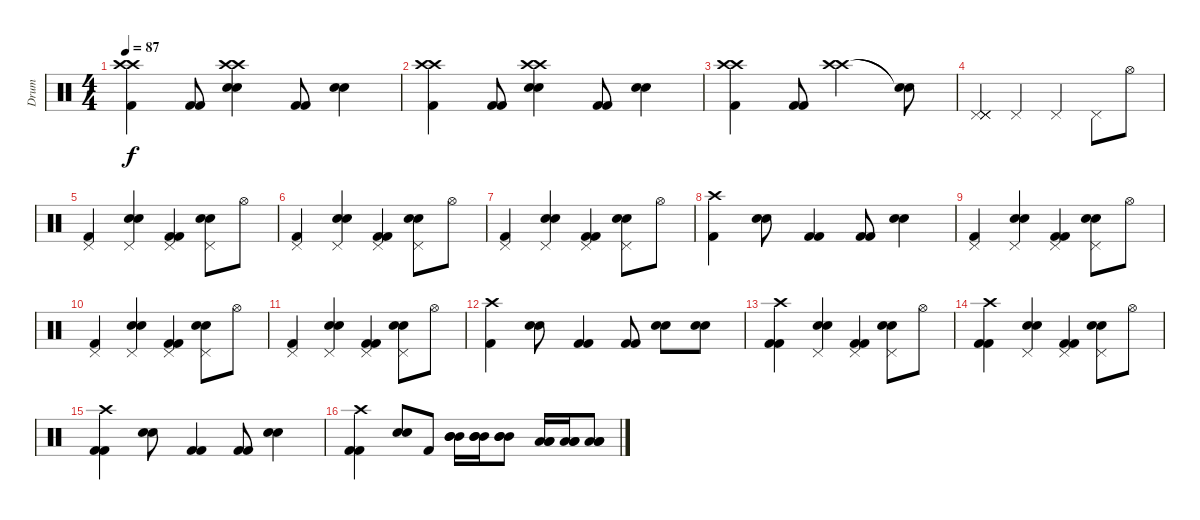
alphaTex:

\track ("Drum" "Drum") {instrument percussion}
\staff {score}
\articulation defaults
\ts (4 4)
\tempo 87
\clef neutral
\ks c
("Crash high (hit)" "Crash high (hit)" "Kick (hit) 2").4{dy f} ("Kick (hit) 2" "Kick (hit) 2").8 ("Crash high (hit)" "Crash high (hit)" "Electric Snare (hit)" "Electric Snare (hit)").4 ("Kick (hit) 2" "Kick (hit) 2").8 ("Electric Snare (hit)" "Electric Snare (hit)").4 |
("Crash high (hit)" "Crash high (hit)" "Kick (hit) 2").4 ("Kick (hit) 2" "Kick (hit) 2").8 ("Crash high (hit)" "Crash high (hit)" "Electric Snare (hit)" "Electric Snare (hit)").4 ("Kick (hit) 2" "Kick (hit) 2").8 ("Electric Snare (hit)" "Electric Snare (hit)").4 |
("Crash high (hit)" "Crash high (hit)" "Kick (hit) 2").4 ("Kick (hit) 2" "Kick (hit) 2").8 ("Crash high (hit)" "Crash high (hit)").2 ("Snare (hit)"{t} "Snare (hit)"{t}).8 |
("Pedal Hi-Hat (hit)" "Pedal Hi-Hat (hit)" "Pedal Hi-Hat (hit)" "Pedal Hi-Hat (hit)").4 "Pedal Hi-Hat (hit)".4 "Pedal Hi-Hat (hit)".4 "Pedal Hi-Hat (hit)".8 "Hi-Hat (open)".8 |
("Pedal Hi-Hat (hit)" "Kick (hit) 2").4 ("Pedal Hi-Hat (hit)" "Electric Snare (hit)" "Electric Snare (hit)").4 ("Pedal Hi-Hat (hit)" "Kick (hit) 2" "Kick (hit) 2").4 ("Pedal Hi-Hat (hit)" "Electric Snare (hit)" "Electric Snare (hit)").8 "Hi-Hat (open)".8 |
("Pedal Hi-Hat (hit)" "Kick (hit) 2").4 ("Pedal Hi-Hat (hit)" "Electric Snare (hit)" "Electric Snare (hit)").4 ("Pedal Hi-Hat (hit)" "Kick (hit) 2" "Kick (hit) 2").4 ("Pedal Hi-Hat (hit)" "Electric Snare (hit)" "Electric Snare (hit)").8 "Hi-Hat (open)".8 |
("Pedal Hi-Hat (hit)" "Kick (hit) 2").4 ("Pedal Hi-Hat (hit)" "Electric Snare (hit)" "Electric Snare (hit)").4 ("Pedal Hi-Hat (hit)" "Kick (hit) 2" "Kick (hit) 2").4 ("Pedal Hi-Hat (hit)" "Electric Snare (hit)" "Electric Snare (hit)").8 "Hi-Hat (open)".8 |
("Crash high (hit)" "Kick (hit) 2").4 ("Electric Snare (hit)" "Electric Snare (hit)").8 ("Kick (hit) 2" "Kick (hit) 2").4 ("Kick (hit) 2" "Kick (hit) 2").8 ("Electric Snare (hit)" "Electric Snare (hit)").4 |
("Pedal Hi-Hat (hit)" "Kick (hit) 2").4 ("Pedal Hi-Hat (hit)" "Electric Snare (hit)" "Electric Snare (hit)").4 ("Pedal Hi-Hat (hit)" "Kick (hit) 2" "Kick (hit) 2").4 ("Pedal Hi-Hat (hit)" "Electric Snare (hit)" "Electric Snare (hit)").8 "Hi-Hat (open)".8 |
("Pedal Hi-Hat (hit)" "Kick (hit) 2").4 ("Pedal Hi-Hat (hit)" "Electric Snare (hit)" "Electric Snare (hit)").4 ("Pedal Hi-Hat (hit)" "Kick (hit) 2" "Kick (hit) 2").4 ("Pedal Hi-Hat (hit)" "Electric Snare (hit)" "Electric Snare (hit)").8 "Hi-Hat (open)".8 |
("Pedal Hi-Hat (hit)" "Kick (hit) 2").4 ("Pedal Hi-Hat (hit)" "Electric Snare (hit)" "Electric Snare (hit)").4 ("Pedal Hi-Hat (hit)" "Kick (hit) 2" "Kick (hit) 2").4 ("Pedal Hi-Hat (hit)" "Electric Snare (hit)" "Electric Snare (hit)").8 "Hi-Hat (open)".8 |
("Crash high (hit)" "Kick (hit) 2").4 ("Electric Snare (hit)" "Electric Snare (hit)").8 ("Kick (hit) 2" "Kick (hit) 2").4 ("Kick (hit) 2" "Kick (hit) 2").8 ("Electric Snare (hit)" "Electric Snare (hit)").8 ("Electric Snare (hit)" "Electric Snare (hit)").8 |
("Crash high (hit)" "Kick (hit) 2" "Kick (hit) 2").4 ("Pedal Hi-Hat (hit)" "Electric Snare (hit)" "Electric Snare (hit)").4 ("Pedal Hi-Hat (hit)" "Kick (hit) 2" "Kick (hit) 2").4 ("Pedal Hi-Hat (hit)" "Electric Snare (hit)" "Electric Snare (hit)").8 "Hi-Hat (open)".8 |
("Crash high (hit)" "Kick (hit) 2" "Kick (hit) 2").4 ("Pedal Hi-Hat (hit)" "Electric Snare (hit)" "Electric Snare (hit)").4 ("Pedal Hi-Hat (hit)" "Kick (hit) 2" "Kick (hit) 2").4 ("Pedal Hi-Hat (hit)" "Electric Snare (hit)" "Electric Snare (hit)").8 "Hi-Hat (open)".8 |
("Crash high (hit)" "Kick (hit) 2" "Kick (hit) 2").4 ("Electric Snare (hit)" "Electric Snare (hit)").8 ("Kick (hit) 2" "Kick (hit) 2").4 ("Kick (hit) 2" "Kick (hit) 2").8 ("Electric Snare (hit)" "Electric Snare (hit)").4 |
("Crash high (hit)" "Kick (hit) 2" "Kick (hit) 2").4 ("Electric Snare (hit)" "Electric Snare (hit)").8 "Kick (hit) 2".8 ("Mid Tom (hit)" "Mid Tom (hit)" "Mid Tom (hit)").16 ("Mid Tom (hit)" "Mid Tom (hit)" "Mid Tom (hit)").16 ("Mid Tom (hit)" "Mid Tom (hit)" "Mid Tom (hit)").8 ("Low Tom (hit)" "Low Tom (hit)" "Low Tom (hit)").16 ("Low Tom (hit)" "Low Tom (hit)" "Low Tom (hit)").16 ("Low Tom (hit)" "Low Tom (hit)" "Low Tom (hit)").8
